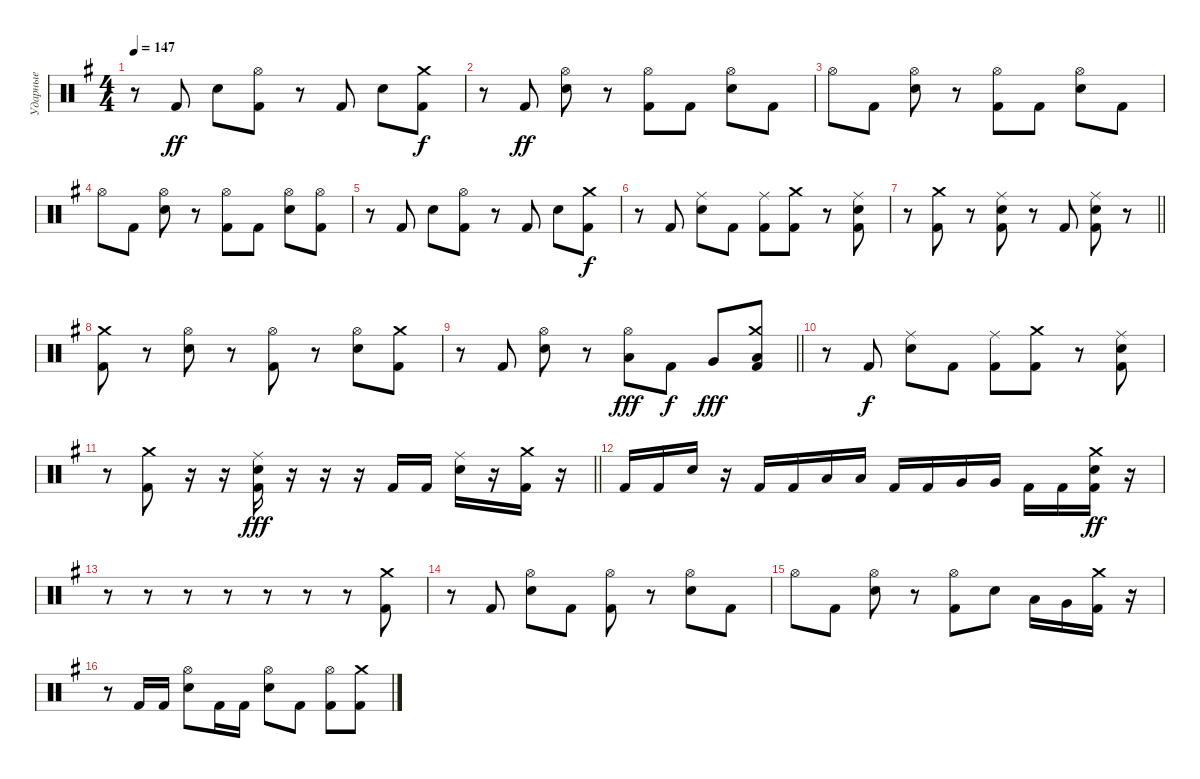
\track ("Ударные" "Ударные") {instrument percussion}
\staff {score}
\articulation defaults
\ts (4 4)
\tempo 147
\clef neutral
\ks eminor
r.8{dy ff} "Kick (hit) 2".8 "Electric Snare (hit)".8 ("Kick (hit) 2" "Hi-Hat (open)").8 r.8 "Kick (hit) 2".8 "Electric Snare (hit)".8 ("Kick (hit) 2" "Crash medium (hit)").8{dy f} |
r.8 "Kick (hit) 2".8{dy ff} ("Electric Snare (hit)" "Hi-Hat (open)").8 r.8 ("Kick (hit) 2" "Hi-Hat (open)").8 "Kick (hit) 2".8 ("Electric Snare (hit)" "Hi-Hat (open)").8 "Kick (hit) 2".8 |
"Hi-Hat (open)".8 "Kick (hit) 2".8 ("Electric Snare (hit)" "Hi-Hat (open)").8 r.8 ("Kick (hit) 2" "Hi-Hat (open)").8 "Kick (hit) 2".8 ("Electric Snare (hit)" "Hi-Hat (open)").8 "Kick (hit) 2".8 |
"Hi-Hat (open)".8 "Kick (hit) 2".8 ("Electric Snare (hit)" "Hi-Hat (open)").8 r.8 ("Kick (hit) 2" "Hi-Hat (open)").8 "Kick (hit) 2".8 ("Electric Snare (hit)" "Hi-Hat (open)").8 ("Kick (hit) 2" "Hi-Hat (open)").8 |
r.8 "Kick (hit) 2".8 "Electric Snare (hit)".8 ("Kick (hit) 2" "Hi-Hat (open)").8 r.8 "Kick (hit) 2".8 "Electric Snare (hit)".8 ("Kick (hit) 2" "Crash medium (hit)").8{dy f} |
r.8 "Kick (hit) 2".8 ("Electric Snare (hit)" "Ride (middle)").8 "Kick (hit) 2".8 ("Kick (hit) 2" "Ride (middle)").8 ("Kick (hit) 2" "Crash medium (hit)").8 r.8 ("Kick (hit) 2" "Electric Snare (hit)" "Ride (middle)").8 |
\barLineRight lightlight
r.8 ("Kick (hit) 2" "Crash medium (hit)").8 r.8 ("Kick (hit) 2" "Electric Snare (hit)" "Ride (middle)").8 r.8 "Kick (hit) 2".8 ("Kick (hit) 2" "Electric Snare (hit)" "Ride (middle)").8 r.8 |
("Kick (hit) 2" "Crash medium (hit)").8 r.8 ("Electric Snare (hit)" "Hi-Hat (open)").8 r.8 ("Kick (hit) 2" "Hi-Hat (open)").8 r.8 ("Electric Snare (hit)" "Hi-Hat (open)").8 ("Kick (hit) 2" "Crash medium (hit)").8 |
\barLineRight lightlight
r.8 "Kick (hit) 2".8 ("Electric Snare (hit)" "Hi-Hat (open)").8 r.8 ("Low Tom (hit)" "Hi-Hat (open)").8{dy fff} "Kick (hit) 2".8{dy f} "Very Low Tom (hit)".8{dy fff} ("Kick (hit) 2" "Low Floor Tom (hit)" "Crash medium (hit)").8 |
r.8 "Kick (hit) 2".8{dy f} ("Electric Snare (hit)" "Ride (middle)").8 "Kick (hit) 2".8 ("Kick (hit) 2" "Ride (middle)").8 ("Kick (hit) 2" "Crash medium (hit)").8 r.8 ("Kick (hit) 2" "Electric Snare (hit)" "Ride (middle)").8 |
\barLineRight lightlight
r.8 ("Kick (hit) 2" "Crash medium (hit)").8 r.16 r.16 ("Kick (hit) 2" "Electric Snare (hit)" "Ride (middle)").16{dy fff} r.16 r.16 r.16 "Kick (hit) 2".16 "Kick (hit) 2".16 ("Electric Snare (hit)" "Ride (middle)").16 r.16 ("Kick (hit) 2" "Crash medium (hit)").16 r.16 |
"Kick (hit) 2".16 "Kick (hit) 2".16 "Electric Snare (hit)".16 r.16 "Kick (hit) 2".16 "Kick (hit) 2".16 "Low Tom (hit)".16 "Low Tom (hit)".16 "Kick (hit) 2".16 "Kick (hit) 2".16 "Very Low Tom (hit)".16 "Very Low Tom (hit)".16 "Kick (hit) 2".16 "Kick (hit) 2".16 ("Kick (hit) 2" "Electric Snare (hit)" "Crash medium (hit)").16{dy ff} r.16 |
r.8 r.8 r.8 r.8 r.8 r.8 r.8 ("Kick (hit) 2" "Crash medium (hit)").8 |
r.8 "Kick (hit) 2".8 ("Electric Snare (hit)" "Hi-Hat (open)").8 "Kick (hit) 2".8 ("Kick (hit) 2" "Hi-Hat (open)").8 r.8 ("Electric Snare (hit)" "Hi-Hat (open)").8 "Kick (hit) 2".8 |
"Hi-Hat (open)".8 "Kick (hit) 2".8 ("Electric Snare (hit)" "Hi-Hat (open)").8 r.8 ("Kick (hit) 2" "Hi-Hat (open)").8 "Electric Snare (hit)".8 "Low Tom (hit)".16 "Very Low Tom (hit)".16 ("Kick (hit) 2" "Crash medium (hit)").16 r.16 |
r.8 "Kick (hit) 2".16 "Kick (hit) 2".16 ("Electric Snare (hit)" "Hi-Hat (open)").8 "Kick (hit) 2".16 "Kick (hit) 2".16 ("Electric Snare (hit)" "Hi-Hat (open)").8 "Kick (hit) 2".8 ("Kick (hit) 2" "Hi-Hat (open)").8 ("Kick (hit) 2" "Crash medium (hit)").8
